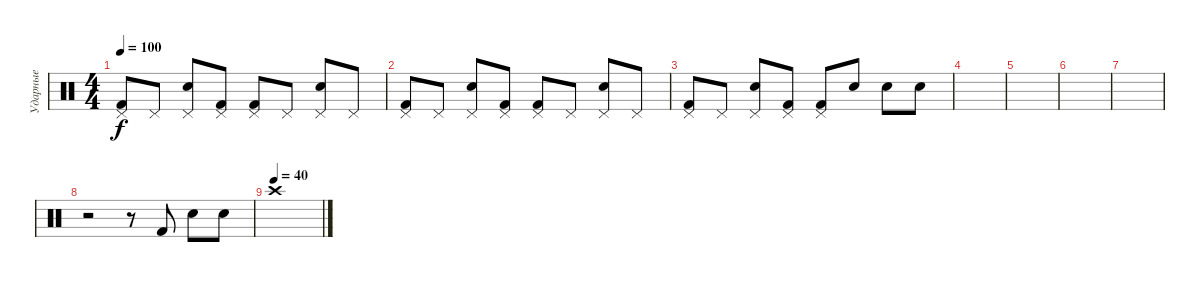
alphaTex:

\track ("Ударные" "Ударные") {instrument percussion}
\staff {score}
\articulation defaults
\ts (4 4)
\tempo 100
\clef neutral
\ks c
("Pedal Hi-Hat (hit)" "Kick (hit) 2").8{dy f} "Pedal Hi-Hat (hit)".8 ("Pedal Hi-Hat (hit)" "Snare (hit) 2").8 ("Pedal Hi-Hat (hit)" "Kick (hit) 2").8 ("Pedal Hi-Hat (hit)" "Kick (hit) 2").8 "Pedal Hi-Hat (hit)".8 ("Pedal Hi-Hat (hit)" "Snare (hit) 2").8 "Pedal Hi-Hat (hit)".8 |
("Pedal Hi-Hat (hit)" "Kick (hit) 2").8 "Pedal Hi-Hat (hit)".8 ("Pedal Hi-Hat (hit)" "Snare (hit) 2").8 ("Pedal Hi-Hat (hit)" "Kick (hit) 2").8 ("Pedal Hi-Hat (hit)" "Kick (hit) 2").8 "Pedal Hi-Hat (hit)".8 ("Pedal Hi-Hat (hit)" "Snare (hit) 2").8 "Pedal Hi-Hat (hit)".8 |
("Pedal Hi-Hat (hit)" "Kick (hit) 2").8 "Pedal Hi-Hat (hit)".8 ("Pedal Hi-Hat (hit)" "Snare (hit) 2").8 ("Pedal Hi-Hat (hit)" "Kick (hit) 2").8 ("Pedal Hi-Hat (hit)" "Kick (hit) 2").8 "Snare (hit) 2".8 "Snare (hit) 2".8 "Snare (hit) 2".8 |
|
|
|
|
r.2 r.8 "Kick (hit) 2".8 "Snare (hit) 2".8 "Snare (hit) 2".8 |
\tempo (40)
"Crash high (hit)".1
